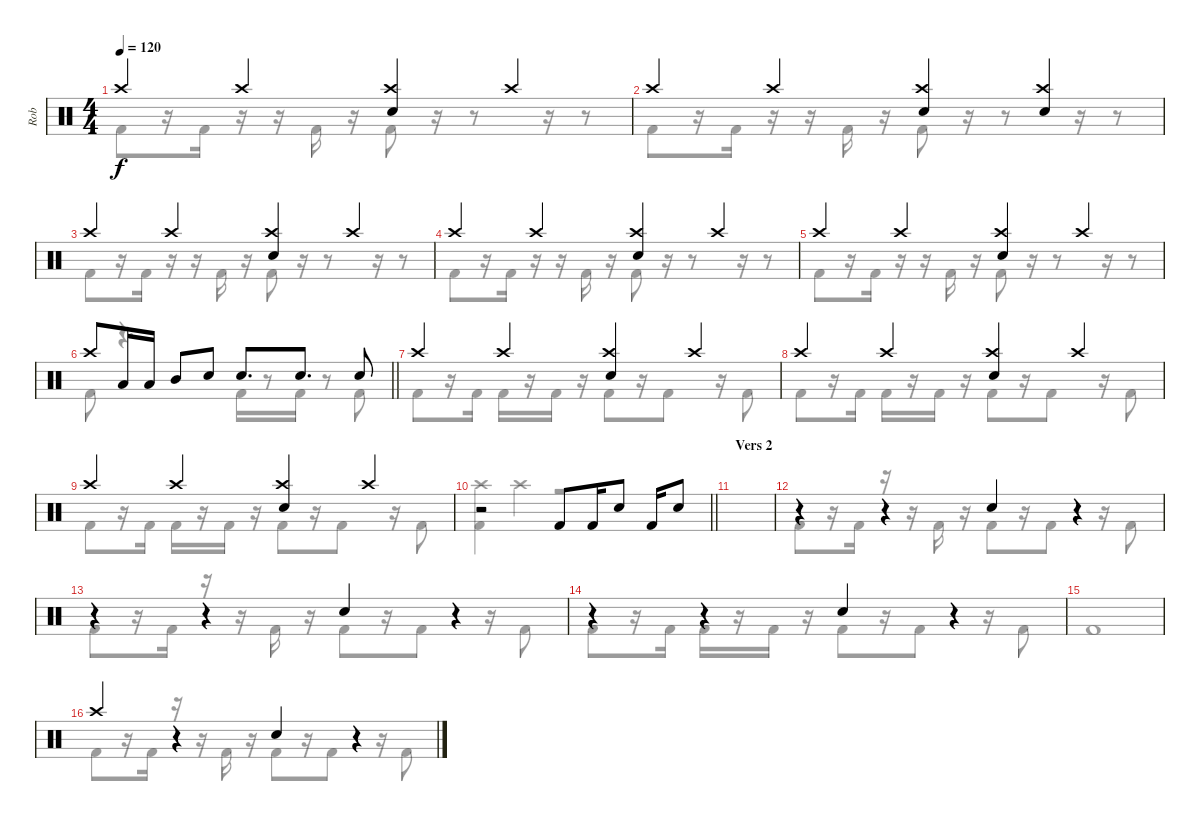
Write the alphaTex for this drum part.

\track ("Rob" "Rob") {instrument percussion}
\staff {score}
\articulation defaults
\voice
\ts (4 4)
\tempo 120
\clef neutral
\ks c "Crash high (hit)".4{dy f} "Crash high (hit)".4
("Crash high (hit)" "Snare (hit) 2").4 "Crash high (hit)".4 |
"Crash high (hit)".4 "Crash high (hit)".4 ("Crash high (hit)" "Snare (hit) 2").4 ("Crash high (hit)" "Snare (hit) 2").4 |
"Crash high (hit)".4 "Crash high (hit)".4 ("Crash high (hit)" "Snare (hit) 2").4 "Crash high (hit)".4 |
"Crash high (hit)".4 "Crash high (hit)".4 ("Crash high (hit)" "Snare (hit) 2").4 "Crash high (hit)".4 |
"Crash high (hit)".4 "Crash high (hit)".4 ("Crash high (hit)" "Snare (hit) 2").4 "Crash high (hit)".4 |
\barLineRight lightlight "Crash high (hit)".8 "Low Floor Tom (hit)".16 "Low Tom (hit)".16 "Mid Tom (hit)".8 "Snare (hit) 2".8 "Snare (hit) 2".8{d} "Snare (hit) 2".8{d} "Snare (hit) 2".8
|
"Crash high (hit)".4 "Crash high (hit)".4 ("Crash high (hit)" "Snare (hit) 2").4 "Crash high (hit)".4 |
"Crash high (hit)".4 "Crash high (hit)".4 ("Crash high (hit)" "Snare (hit) 2").4 "Crash high (hit)".4 |
"Crash high (hit)".4 "Crash high (hit)".4 ("Crash high (hit)" "Snare (hit) 2").4 "Crash high (hit)".4 |
\barLineRight lightlight
r.2 "Kick (hit) 2".8 "Kick (hit) 2".16 "Snare (hit) 2".8 "Kick (hit) 2".16 "Snare (hit) 2".8 |
\section ("" "Vers 2")
|
r.4 r.4 "Snare (hit) 2".4 r.4 |
r.4 r.4 "Snare (hit) 2".4 r.4 |
r.4 r.4 "Snare (hit) 2".4 r.4 |
|
"Crash high (hit)".4 r.4 "Snare (hit) 2".4 r.4
\voice
\clef neutral
\ottava regular
\simile none
\ks c "Kick (hit) 2".8{dy f}
r.16 "Kick (hit) 2".16 r.16 r.16 "Kick (hit) 2".16 r.16 "Kick (hit) 2".8 r.16 r.8 r.16 r.8 |
"Kick (hit) 2".8 r.16 "Kick (hit) 2".16 r.16 r.16 "Kick (hit) 2".16 r.16 "Kick (hit) 2".8 r.16 r.8 r.16 r.8 |
"Kick (hit) 2".8 r.16 "Kick (hit) 2".16 r.16 r.16 "Kick (hit) 2".16 r.16 "Kick (hit) 2".8 r.16 r.8 r.16 r.8 |
"Kick (hit) 2".8 r.16 "Kick (hit) 2".16 r.16 r.16 "Kick (hit) 2".16 r.16 "Kick (hit) 2".8 r.16 r.8 r.16 r.8 |
"Kick (hit) 2".8 r.16 "Kick (hit) 2".16 r.16 r.16 "Kick (hit) 2".16 r.16 "Kick (hit) 2".8 r.16 r.8 r.16 r.8 |
\barLineRight lightlight "Kick (hit) 2".8
r.4{d} "Kick (hit) 2".16 r.8 "Kick (hit) 2".16 r.8 "Kick (hit) 2".8 |
"Kick (hit) 2".8 r.16 "Kick (hit) 2".16 "Kick (hit) 2".16 r.16 "Kick (hit) 2".16 r.16 "Kick (hit) 2".8 r.16 "Kick (hit) 2".8 r.16 "Kick (hit) 2".8 |
"Kick (hit) 2".8 r.16 "Kick (hit) 2".16 "Kick (hit) 2".16 r.16 "Kick (hit) 2".16 r.16 "Kick (hit) 2".8 r.16 "Kick (hit) 2".8 r.16 "Kick (hit) 2".8 |
"Kick (hit) 2".8 r.16 "Kick (hit) 2".16 "Kick (hit) 2".16 r.16 "Kick (hit) 2".16 r.16 "Kick (hit) 2".8 r.16 "Kick (hit) 2".8 r.16 "Kick (hit) 2".8 |
\barLineRight lightlight
("Crash high (hit)" "Kick (hit) 2").4 "Crash high (hit)".4 r.2 |
|
"Kick (hit) 2".8 r.16 "Kick (hit) 2".16 r.16 r.16 "Kick (hit) 2".16 r.16 "Kick (hit) 2".8 r.16 "Kick (hit) 2".8 r.16 "Kick (hit) 2".8 |
"Kick (hit) 2".8 r.16 "Kick (hit) 2".16 r.16 r.16 "Kick (hit) 2".16 r.16 "Kick (hit) 2".8 r.16 "Kick (hit) 2".8 r.16 "Kick (hit) 2".8 |
"Kick (hit) 2".8 r.16 "Kick (hit) 2".16 "Kick (hit) 2".16 r.16 "Kick (hit) 2".16 r.16 "Kick (hit) 2".8 r.16 "Kick (hit) 2".8 r.16 "Kick (hit) 2".8 |
"Kick (hit) 2".1 |
"Kick (hit) 2".8 r.16 "Kick (hit) 2".16 r.16 r.16 "Kick (hit) 2".16 r.16 "Kick (hit) 2".8 r.16 "Kick (hit) 2".8 r.16 "Kick (hit) 2".8
